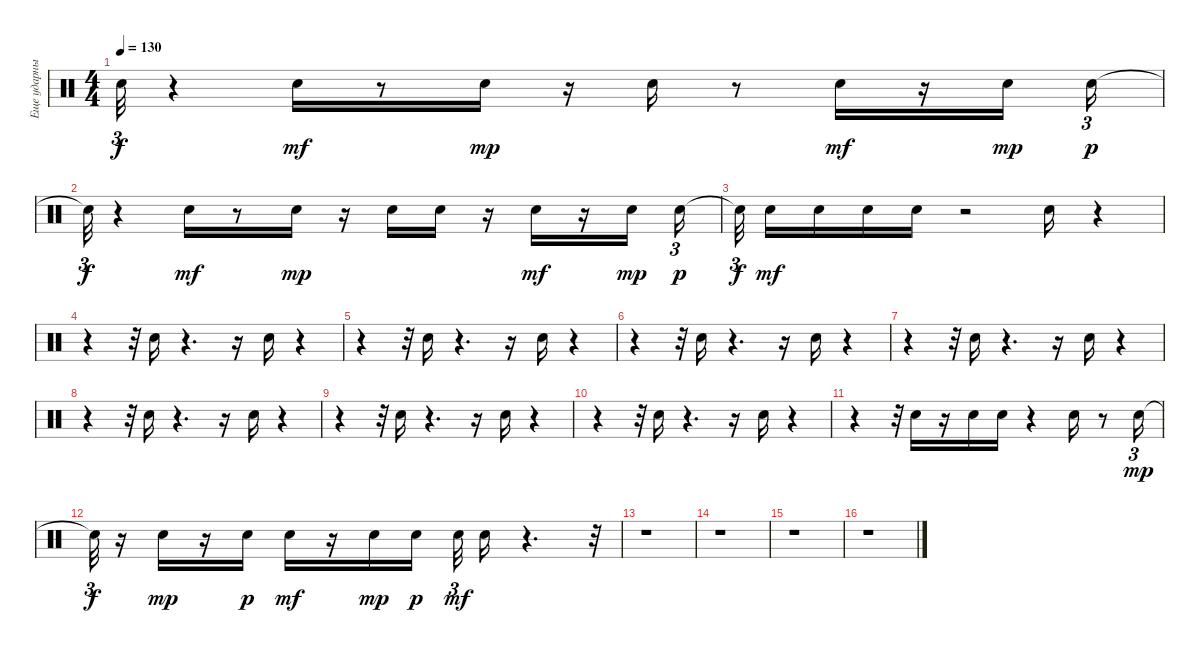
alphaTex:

\track ("Еще ударные" "Еще ударны") {instrument percussion}
\staff {score}
\articulation defaults
\ts (4 4)
\tempo 130
\clef neutral
\ks c "Snare (hit)"{t}.32{tu (3 2) dy f}
r.4 "Electric Snare (hit)".16{dy mf} r.8 "Electric Snare (hit)".16{dy mp} r.16 "Electric Snare (hit)".16 r.8 "Electric Snare (hit)".16{dy mf} r.16 "Electric Snare (hit)".16{dy mp} "Electric Snare (hit)".16{tu (3 2) dy p} |
"Snare (hit)"{t}.32{tu (3 2) dy f} r.4 "Electric Snare (hit)".16{dy mf} r.8 "Electric Snare (hit)".16{dy mp} r.16 "Electric Snare (hit)".16 "Electric Snare (hit)".16 r.16 "Electric Snare (hit)".16{dy mf} r.16 "Electric Snare (hit)".16{dy mp} "Electric Snare (hit)".16{tu (3 2) dy p} |
"Snare (hit)"{t}.32{tu (3 2) dy f beam splitsecondary} "Electric Snare (hit)".16{dy mf} "Electric Snare (hit)".16 "Electric Snare (hit)".16 "Electric Snare (hit)".16 r.2 "Electric Snare (hit)".16 r.4{tu (3 2)} |
r.4 r.32{tu (3 2)} "Electric Snare (hit)".16 r.4{d} r.16 "Electric Snare (hit)".16 r.4{tu (3 2)} |
r.4 r.32{tu (3 2)} "Electric Snare (hit)".16 r.4{d} r.16 "Electric Snare (hit)".16 r.4{tu (3 2)} |
r.4 r.32{tu (3 2)} "Electric Snare (hit)".16 r.4{d} r.16 "Electric Snare (hit)".16 r.4{tu (3 2)} |
r.4 r.32{tu (3 2)} "Electric Snare (hit)".16 r.4{d} r.16 "Electric Snare (hit)".16 r.4{tu (3 2)} |
r.4 r.32{tu (3 2)} "Electric Snare (hit)".16 r.4{d} r.16 "Electric Snare (hit)".16 r.4{tu (3 2)} |
r.4 r.32{tu (3 2)} "Electric Snare (hit)".16 r.4{d} r.16 "Electric Snare (hit)".16 r.4{tu (3 2)} |
r.4 r.32{tu (3 2)} "Electric Snare (hit)".16 r.4{d} r.16 "Electric Snare (hit)".16 r.4{tu (3 2)} |
r.4 r.32{tu (3 2)} "Electric Snare (hit)".16 r.16 "Electric Snare (hit)".16 "Electric Snare (hit)".16 r.4 "Electric Snare (hit)".16 r.8 "Electric Snare (hit)".16{tu (3 2) dy mp} |
"Snare (hit)"{t}.32{tu (3 2) dy f} r.16 "Electric Snare (hit)".16{dy mp} r.16 "Electric Snare (hit)".16{dy p} "Electric Snare (hit)".16{dy mf} r.16 "Electric Snare (hit)".16{dy mp} "Electric Snare (hit)".16{dy p} "Electric Snare (hit)".32{tu (3 2) dy mf} "Electric Snare (hit)".16 r.4{d} r.32{tu (3 2)} |
r.1 |
r.1 |
r.1 |
r.1
